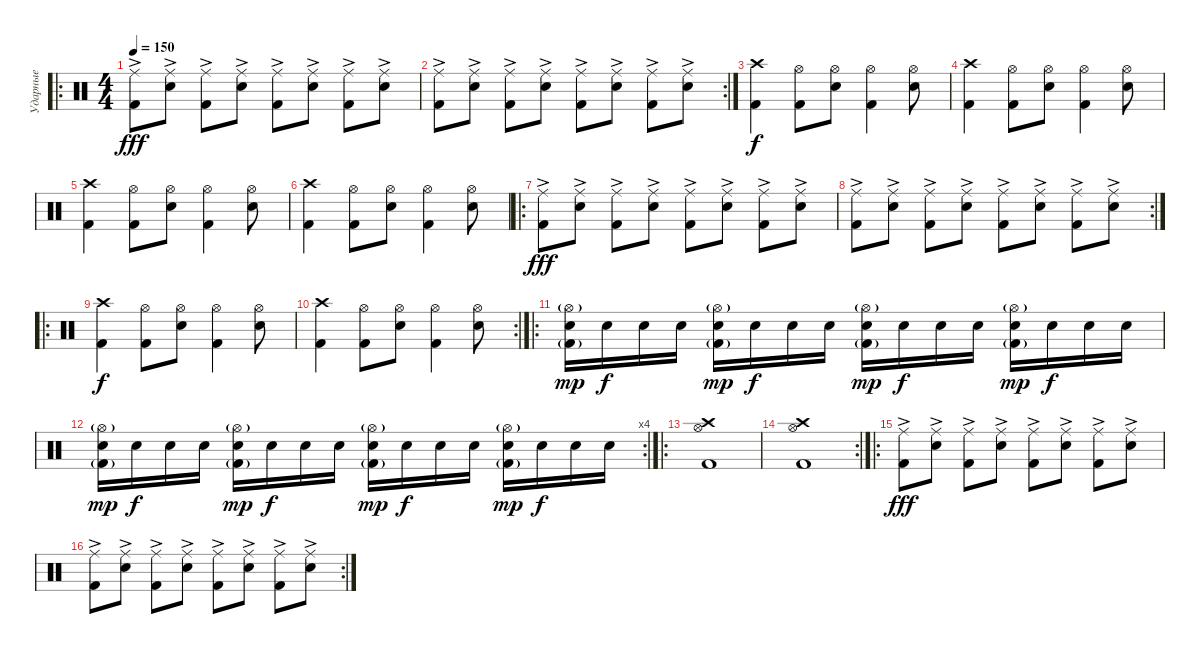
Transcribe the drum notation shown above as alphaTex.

\track ("Ударные" "Ударные") {instrument percussion}
\staff {score}
\articulation defaults
\ro
\ts (4 4)
\tempo 150
\clef neutral
\ks c
("Ride (middle)"{ac} "Kick (hit) 2"{ac}).8{dy fff} ("Ride (middle)"{ac} "Snare (hit) 2"{ac}).8 ("Ride (middle)"{ac} "Kick (hit) 2"{ac}).8 ("Ride (middle)"{ac} "Snare (hit) 2"{ac}).8 ("Ride (middle)"{ac} "Kick (hit) 2"{ac}).8 ("Ride (middle)"{ac} "Snare (hit) 2"{ac}).8 ("Ride (middle)"{ac} "Kick (hit) 2"{ac}).8 ("Ride (middle)"{ac} "Snare (hit) 2"{ac}).8 |
\rc 2
("Ride (middle)"{ac} "Kick (hit) 2"{ac}).8 ("Ride (middle)"{ac} "Snare (hit) 2"{ac}).8 ("Ride (middle)"{ac} "Kick (hit) 2"{ac}).8 ("Ride (middle)"{ac} "Snare (hit) 2"{ac}).8 ("Ride (middle)"{ac} "Kick (hit) 2"{ac}).8 ("Ride (middle)"{ac} "Snare (hit) 2"{ac}).8 ("Ride (middle)"{ac} "Kick (hit) 2"{ac}).8 ("Ride (middle)"{ac} "Snare (hit) 2"{ac}).8 |
("Crash high (hit)" "Kick (hit) 2").4{dy f} ("Hi-Hat (open)" "Kick (hit) 2").8 ("Hi-Hat (open)" "Snare (hit) 2").8 ("Hi-Hat (open)" "Kick (hit) 2").4 ("Hi-Hat (open)" "Snare (hit) 2").8 |
("Crash high (hit)" "Kick (hit) 2").4 ("Hi-Hat (open)" "Kick (hit) 2").8 ("Hi-Hat (open)" "Snare (hit) 2").8 ("Hi-Hat (open)" "Kick (hit) 2").4 ("Hi-Hat (open)" "Snare (hit) 2").8 |
("Crash high (hit)" "Kick (hit) 2").4 ("Hi-Hat (open)" "Kick (hit) 2").8 ("Hi-Hat (open)" "Snare (hit) 2").8 ("Hi-Hat (open)" "Kick (hit) 2").4 ("Hi-Hat (open)" "Snare (hit) 2").8 |
("Crash high (hit)" "Kick (hit) 2").4 ("Hi-Hat (open)" "Kick (hit) 2").8 ("Hi-Hat (open)" "Snare (hit) 2").8 ("Hi-Hat (open)" "Kick (hit) 2").4 ("Hi-Hat (open)" "Snare (hit) 2").8 |
\ro
("Ride (middle)"{ac} "Kick (hit) 2"{ac}).8{dy fff} ("Ride (middle)"{ac} "Snare (hit) 2"{ac}).8 ("Ride (middle)"{ac} "Kick (hit) 2"{ac}).8 ("Ride (middle)"{ac} "Snare (hit) 2"{ac}).8 ("Ride (middle)"{ac} "Kick (hit) 2"{ac}).8 ("Ride (middle)"{ac} "Snare (hit) 2"{ac}).8 ("Ride (middle)"{ac} "Kick (hit) 2"{ac}).8 ("Ride (middle)"{ac} "Snare (hit) 2"{ac}).8 |
\rc 2
("Ride (middle)"{ac} "Kick (hit) 2"{ac}).8 ("Ride (middle)"{ac} "Snare (hit) 2"{ac}).8 ("Ride (middle)"{ac} "Kick (hit) 2"{ac}).8 ("Ride (middle)"{ac} "Snare (hit) 2"{ac}).8 ("Ride (middle)"{ac} "Kick (hit) 2"{ac}).8 ("Ride (middle)"{ac} "Snare (hit) 2"{ac}).8 ("Ride (middle)"{ac} "Kick (hit) 2"{ac}).8 ("Ride (middle)"{ac} "Snare (hit) 2"{ac}).8 |
\ro
("Crash high (hit)" "Kick (hit) 2").4{dy f} ("Hi-Hat (open)" "Kick (hit) 2").8 ("Hi-Hat (open)" "Snare (hit) 2").8 ("Hi-Hat (open)" "Kick (hit) 2").4 ("Hi-Hat (open)" "Snare (hit) 2").8 |
\rc 2
("Crash high (hit)" "Kick (hit) 2").4 ("Hi-Hat (open)" "Kick (hit) 2").8 ("Hi-Hat (open)" "Snare (hit) 2").8 ("Hi-Hat (open)" "Kick (hit) 2").4 ("Hi-Hat (open)" "Snare (hit) 2").8 |
\ro
("Snare (hit) 2" "Kick (hit) 2"{g} "Hi-Hat (open)"{g}).16{dy mp} "Snare (hit) 2".16{dy f} "Snare (hit) 2".16 "Snare (hit) 2".16 ("Snare (hit) 2" "Kick (hit) 2"{g} "Hi-Hat (open)"{g}).16{dy mp} "Snare (hit) 2".16{dy f} "Snare (hit) 2".16 "Snare (hit) 2".16 ("Snare (hit) 2" "Kick (hit) 2"{g} "Hi-Hat (open)"{g}).16{dy mp} "Snare (hit) 2".16{dy f} "Snare (hit) 2".16 "Snare (hit) 2".16 ("Snare (hit) 2" "Kick (hit) 2"{g} "Hi-Hat (open)"{g}).16{dy mp} "Snare (hit) 2".16{dy f} "Snare (hit) 2".16 "Snare (hit) 2".16 |
\rc 4
("Snare (hit) 2" "Kick (hit) 2"{g} "Hi-Hat (open)"{g}).16{dy mp} "Snare (hit) 2".16{dy f} "Snare (hit) 2".16 "Snare (hit) 2".16 ("Snare (hit) 2" "Kick (hit) 2"{g} "Hi-Hat (open)"{g}).16{dy mp} "Snare (hit) 2".16{dy f} "Snare (hit) 2".16 "Snare (hit) 2".16 ("Snare (hit) 2" "Kick (hit) 2"{g} "Hi-Hat (open)"{g}).16{dy mp} "Snare (hit) 2".16{dy f} "Snare (hit) 2".16 "Snare (hit) 2".16 ("Snare (hit) 2" "Kick (hit) 2"{g} "Hi-Hat (open)"{g}).16{dy mp} "Snare (hit) 2".16{dy f} "Snare (hit) 2".16 "Snare (hit) 2".16 |
\ro
("Crash high (hit)" "Hi-Hat (open)" "Kick (hit) 2").1 |
\rc 2
("Crash high (hit)" "Hi-Hat (open)" "Kick (hit) 2").1 |
\ro
("Ride (middle)"{ac} "Kick (hit) 2"{ac}).8{dy fff} ("Ride (middle)"{ac} "Snare (hit) 2"{ac}).8 ("Ride (middle)"{ac} "Kick (hit) 2"{ac}).8 ("Ride (middle)"{ac} "Snare (hit) 2"{ac}).8 ("Ride (middle)"{ac} "Kick (hit) 2"{ac}).8 ("Ride (middle)"{ac} "Snare (hit) 2"{ac}).8 ("Ride (middle)"{ac} "Kick (hit) 2"{ac}).8 ("Ride (middle)"{ac} "Snare (hit) 2"{ac}).8 |
\rc 2
("Ride (middle)"{ac} "Kick (hit) 2"{ac}).8 ("Ride (middle)"{ac} "Snare (hit) 2"{ac}).8 ("Ride (middle)"{ac} "Kick (hit) 2"{ac}).8 ("Ride (middle)"{ac} "Snare (hit) 2"{ac}).8 ("Ride (middle)"{ac} "Kick (hit) 2"{ac}).8 ("Ride (middle)"{ac} "Snare (hit) 2"{ac}).8 ("Ride (middle)"{ac} "Kick (hit) 2"{ac}).8 ("Ride (middle)"{ac} "Snare (hit) 2"{ac}).8
